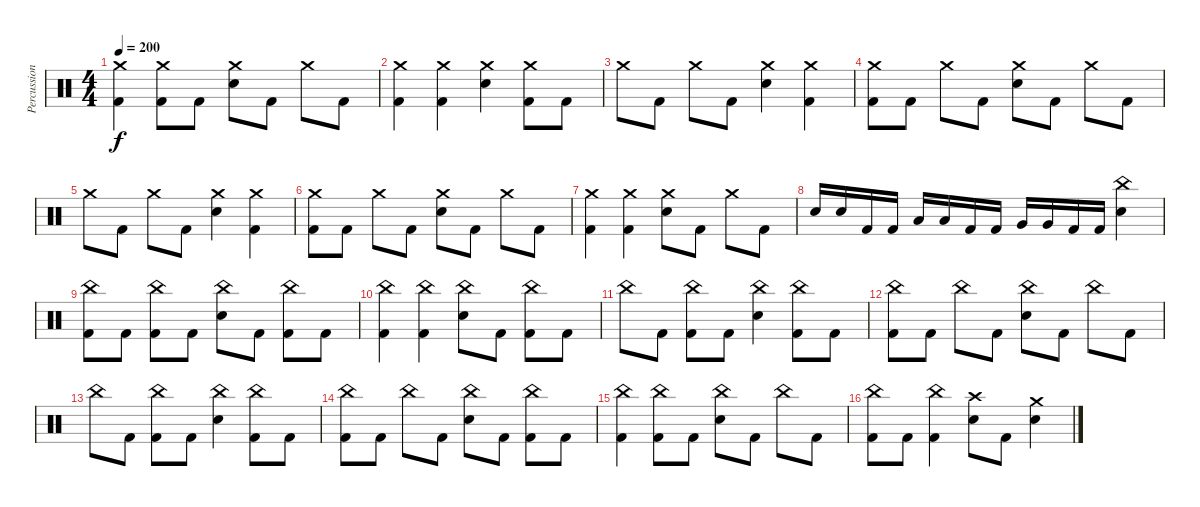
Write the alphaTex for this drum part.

\track ("Percussion" "Percussion") {instrument percussion}
\staff {score}
\articulation defaults
\ts (4 4)
\tempo 200
\clef neutral
\ks c
("Crash medium (hit)" "Kick (hit) 2").4{dy f} ("Crash medium (hit)" "Kick (hit) 2").8 "Kick (hit) 2".8 ("Crash medium (hit)" "Electric Snare (hit)").8 "Kick (hit) 2".8 "Crash medium (hit)".8 "Kick (hit) 2".8 |
("Crash medium (hit)" "Kick (hit) 2").4 ("Crash medium (hit)" "Kick (hit) 2").4 ("Crash medium (hit)" "Electric Snare (hit)").4 ("Crash medium (hit)" "Kick (hit) 2").8 "Kick (hit) 2".8 |
"Crash medium (hit)".8 "Kick (hit) 2".8 "Crash medium (hit)".8 "Kick (hit) 2".8 ("Crash medium (hit)" "Electric Snare (hit)").4 ("Crash medium (hit)" "Kick (hit) 2").4 |
("Crash medium (hit)" "Kick (hit) 2").8 "Kick (hit) 2".8 "Crash medium (hit)".8 "Kick (hit) 2".8 ("Crash medium (hit)" "Electric Snare (hit)").8 "Kick (hit) 2".8 "Crash medium (hit)".8 "Kick (hit) 2".8 |
"Crash medium (hit)".8 "Kick (hit) 2".8 "Crash medium (hit)".8 "Kick (hit) 2".8 ("Crash medium (hit)" "Electric Snare (hit)").4 ("Crash medium (hit)" "Kick (hit) 2").4 |
("Crash medium (hit)" "Kick (hit) 2").8 "Kick (hit) 2".8 "Crash medium (hit)".8 "Kick (hit) 2".8 ("Crash medium (hit)" "Electric Snare (hit)").8 "Kick (hit) 2".8 "Crash medium (hit)".8 "Kick (hit) 2".8 |
("Crash medium (hit)" "Kick (hit) 2").4 ("Crash medium (hit)" "Kick (hit) 2").4 ("Crash medium (hit)" "Electric Snare (hit)").8 "Kick (hit) 2".8 "Crash medium (hit)".8 "Kick (hit) 2".8 |
"Electric Snare (hit)".16 "Electric Snare (hit)".16 "Kick (hit) 2".16 "Kick (hit) 2".16 "Low Tom (hit)".16 "Low Tom (hit)".16 "Kick (hit) 2".16 "Kick (hit) 2".16 "Very Low Tom (hit)".16 "Very Low Tom (hit)".16 "Kick (hit) 2".16 "Kick (hit) 2".16 ("China (hit)" "Electric Snare (hit)").4 |
("China (hit)" "Kick (hit) 2").8 "Kick (hit) 2".8 ("China (hit)" "Kick (hit) 2").8 "Kick (hit) 2".8 ("China (hit)" "Electric Snare (hit)").8 "Kick (hit) 2".8 ("China (hit)" "Kick (hit) 2").8 "Kick (hit) 2".8 |
("China (hit)" "Kick (hit) 2").4 ("China (hit)" "Kick (hit) 2").4 ("China (hit)" "Electric Snare (hit)").8 "Kick (hit) 2".8 ("China (hit)" "Kick (hit) 2").8 "Kick (hit) 2".8 |
"China (hit)".8 "Kick (hit) 2".8 ("China (hit)" "Kick (hit) 2").8 "Kick (hit) 2".8 ("China (hit)" "Electric Snare (hit)").4 ("China (hit)" "Kick (hit) 2").8 "Kick (hit) 2".8 |
("China (hit)" "Kick (hit) 2").8 "Kick (hit) 2".8 "China (hit)".8 "Kick (hit) 2".8 ("China (hit)" "Electric Snare (hit)").8 "Kick (hit) 2".8 "China (hit)".8 "Kick (hit) 2".8 |
"China (hit)".8 "Kick (hit) 2".8 ("China (hit)" "Kick (hit) 2").8 "Kick (hit) 2".8 ("China (hit)" "Electric Snare (hit)").4 ("China (hit)" "Kick (hit) 2").8 "Kick (hit) 2".8 |
("China (hit)" "Kick (hit) 2").8 "Kick (hit) 2".8 "China (hit)".8 "Kick (hit) 2".8 ("China (hit)" "Electric Snare (hit)").8 "Kick (hit) 2".8 ("China (hit)" "Kick (hit) 2").8 "Kick (hit) 2".8 |
("China (hit)" "Kick (hit) 2").4 ("China (hit)" "Kick (hit) 2").8 "Kick (hit) 2".8 ("China (hit)" "Electric Snare (hit)").8 "Kick (hit) 2".8 "China (hit)".8 "Kick (hit) 2".8 |
("China (hit)" "Kick (hit) 2").8 "Kick (hit) 2".8 ("China (hit)" "Kick (hit) 2").4 ("Crash high (hit)" "Electric Snare (hit)").8 "Kick (hit) 2".8 ("Crash medium (hit)" "Electric Snare (hit)").4
